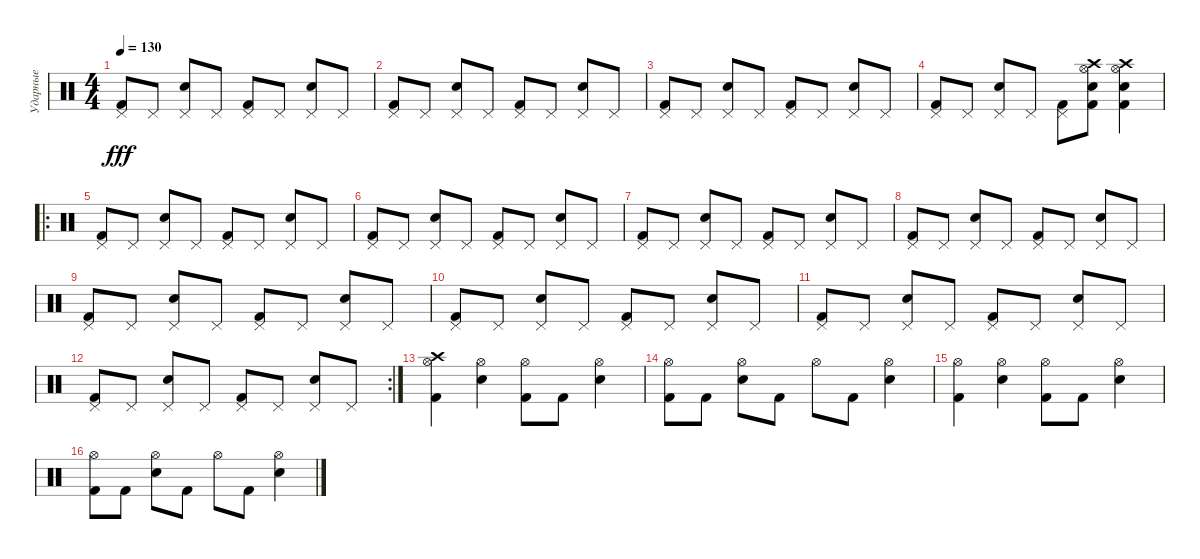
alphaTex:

\track ("Ударные" "Ударные") {instrument percussion}
\staff {score}
\articulation defaults
\ts (4 4)
\tempo 130
\clef neutral
\ks c
("Pedal Hi-Hat (hit)" "Kick (hit) 2").8{dy fff} "Pedal Hi-Hat (hit)".8 ("Pedal Hi-Hat (hit)" "Snare (hit) 2").8 "Pedal Hi-Hat (hit)".8 ("Pedal Hi-Hat (hit)" "Kick (hit) 2").8 "Pedal Hi-Hat (hit)".8 ("Pedal Hi-Hat (hit)" "Snare (hit) 2").8 "Pedal Hi-Hat (hit)".8 |
("Pedal Hi-Hat (hit)" "Kick (hit) 2").8 "Pedal Hi-Hat (hit)".8 ("Pedal Hi-Hat (hit)" "Snare (hit) 2").8 "Pedal Hi-Hat (hit)".8 ("Pedal Hi-Hat (hit)" "Kick (hit) 2").8 "Pedal Hi-Hat (hit)".8 ("Pedal Hi-Hat (hit)" "Snare (hit) 2").8 "Pedal Hi-Hat (hit)".8 |
("Pedal Hi-Hat (hit)" "Kick (hit) 2").8 "Pedal Hi-Hat (hit)".8 ("Pedal Hi-Hat (hit)" "Snare (hit) 2").8 "Pedal Hi-Hat (hit)".8 ("Pedal Hi-Hat (hit)" "Kick (hit) 2").8 "Pedal Hi-Hat (hit)".8 ("Pedal Hi-Hat (hit)" "Snare (hit) 2").8 "Pedal Hi-Hat (hit)".8 |
("Pedal Hi-Hat (hit)" "Kick (hit) 2").8 "Pedal Hi-Hat (hit)".8 ("Pedal Hi-Hat (hit)" "Snare (hit) 2").8 "Pedal Hi-Hat (hit)".8 ("Pedal Hi-Hat (hit)" "Kick (hit) 2").8 ("Hi-Hat (open)" "Crash high (hit)" "Snare (hit) 2" "Kick (hit) 2").8 ("Hi-Hat (open)" "Crash high (hit)" "Snare (hit) 2" "Kick (hit) 2").4 |
\ro
("Pedal Hi-Hat (hit)" "Kick (hit) 2").8 "Pedal Hi-Hat (hit)".8 ("Pedal Hi-Hat (hit)" "Snare (hit) 2").8 "Pedal Hi-Hat (hit)".8 ("Pedal Hi-Hat (hit)" "Kick (hit) 2").8 "Pedal Hi-Hat (hit)".8 ("Pedal Hi-Hat (hit)" "Snare (hit) 2").8 "Pedal Hi-Hat (hit)".8 |
("Pedal Hi-Hat (hit)" "Kick (hit) 2").8 "Pedal Hi-Hat (hit)".8 ("Pedal Hi-Hat (hit)" "Snare (hit) 2").8 "Pedal Hi-Hat (hit)".8 ("Pedal Hi-Hat (hit)" "Kick (hit) 2").8 "Pedal Hi-Hat (hit)".8 ("Pedal Hi-Hat (hit)" "Snare (hit) 2").8 "Pedal Hi-Hat (hit)".8 |
("Pedal Hi-Hat (hit)" "Kick (hit) 2").8 "Pedal Hi-Hat (hit)".8 ("Pedal Hi-Hat (hit)" "Snare (hit) 2").8 "Pedal Hi-Hat (hit)".8 ("Pedal Hi-Hat (hit)" "Kick (hit) 2").8 "Pedal Hi-Hat (hit)".8 ("Pedal Hi-Hat (hit)" "Snare (hit) 2").8 "Pedal Hi-Hat (hit)".8 |
("Pedal Hi-Hat (hit)" "Kick (hit) 2").8 "Pedal Hi-Hat (hit)".8 ("Pedal Hi-Hat (hit)" "Snare (hit) 2").8 "Pedal Hi-Hat (hit)".8 ("Pedal Hi-Hat (hit)" "Kick (hit) 2").8 "Pedal Hi-Hat (hit)".8 ("Pedal Hi-Hat (hit)" "Snare (hit) 2").8 "Pedal Hi-Hat (hit)".8 |
("Pedal Hi-Hat (hit)" "Kick (hit) 2").8 "Pedal Hi-Hat (hit)".8 ("Pedal Hi-Hat (hit)" "Snare (hit) 2").8 "Pedal Hi-Hat (hit)".8 ("Pedal Hi-Hat (hit)" "Kick (hit) 2").8 "Pedal Hi-Hat (hit)".8 ("Pedal Hi-Hat (hit)" "Snare (hit) 2").8 "Pedal Hi-Hat (hit)".8 |
("Pedal Hi-Hat (hit)" "Kick (hit) 2").8 "Pedal Hi-Hat (hit)".8 ("Pedal Hi-Hat (hit)" "Snare (hit) 2").8 "Pedal Hi-Hat (hit)".8 ("Pedal Hi-Hat (hit)" "Kick (hit) 2").8 "Pedal Hi-Hat (hit)".8 ("Pedal Hi-Hat (hit)" "Snare (hit) 2").8 "Pedal Hi-Hat (hit)".8 |
("Pedal Hi-Hat (hit)" "Kick (hit) 2").8 "Pedal Hi-Hat (hit)".8 ("Pedal Hi-Hat (hit)" "Snare (hit) 2").8 "Pedal Hi-Hat (hit)".8 ("Pedal Hi-Hat (hit)" "Kick (hit) 2").8 "Pedal Hi-Hat (hit)".8 ("Pedal Hi-Hat (hit)" "Snare (hit) 2").8 "Pedal Hi-Hat (hit)".8 |
\rc 2
("Pedal Hi-Hat (hit)" "Kick (hit) 2").8 "Pedal Hi-Hat (hit)".8 ("Pedal Hi-Hat (hit)" "Snare (hit) 2").8 "Pedal Hi-Hat (hit)".8 ("Pedal Hi-Hat (hit)" "Kick (hit) 2").8 "Pedal Hi-Hat (hit)".8 ("Pedal Hi-Hat (hit)" "Snare (hit) 2").8 "Pedal Hi-Hat (hit)".8 |
("Hi-Hat (open)" "Crash high (hit)" "Kick (hit) 2").4 ("Hi-Hat (open)" "Snare (hit) 2").4 ("Hi-Hat (open)" "Kick (hit) 2").8 "Kick (hit) 2".8 ("Hi-Hat (open)" "Snare (hit) 2").4 |
("Hi-Hat (open)" "Kick (hit) 2").8 "Kick (hit) 2".8 ("Hi-Hat (open)" "Snare (hit) 2").8 "Kick (hit) 2".8 "Hi-Hat (open)".8 "Kick (hit) 2".8 ("Hi-Hat (open)" "Snare (hit) 2").4 |
("Hi-Hat (open)" "Kick (hit) 2").4 ("Hi-Hat (open)" "Snare (hit) 2").4 ("Hi-Hat (open)" "Kick (hit) 2").8 "Kick (hit) 2".8 ("Hi-Hat (open)" "Snare (hit) 2").4 |
("Hi-Hat (open)" "Kick (hit) 2").8 "Kick (hit) 2".8 ("Hi-Hat (open)" "Snare (hit) 2").8 "Kick (hit) 2".8 "Hi-Hat (open)".8 "Kick (hit) 2".8 ("Hi-Hat (open)" "Snare (hit) 2").4
